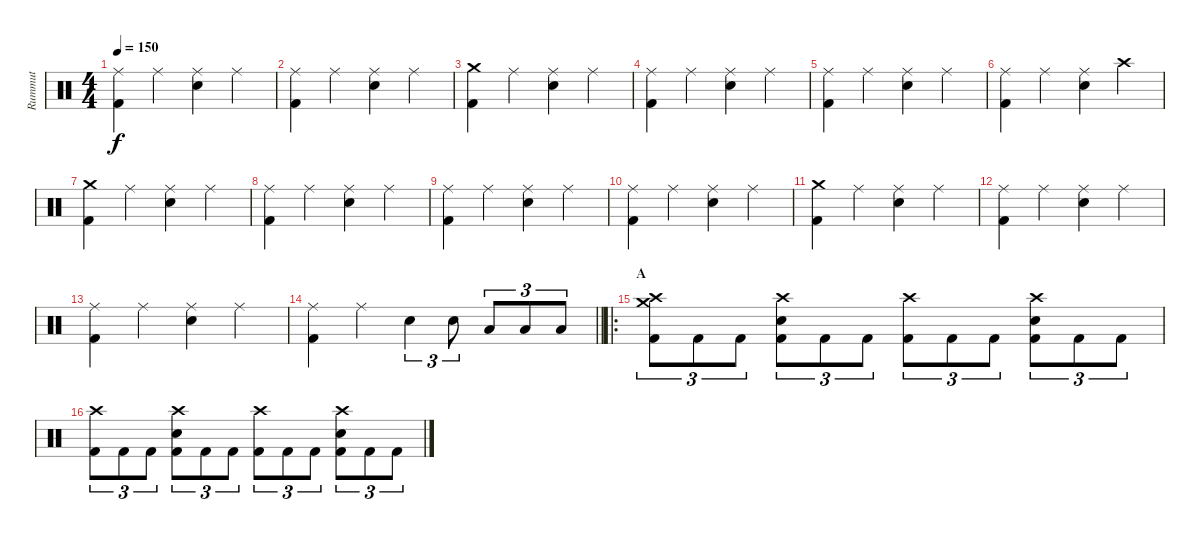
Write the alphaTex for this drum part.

\track ("Rummut" "Rummut") {mute instrument percussion}
\staff {score}
\articulation defaults
\ts (4 4)
\tempo 150
\clef neutral
\ks c
("Ride (middle)" "Kick (hit) 2").4{dy f} "Ride (middle)".4 ("Ride (middle)" "Electric Snare (hit)").4 "Ride (middle)".4 |
("Ride (middle)" "Kick (hit) 2").4 "Ride (middle)".4 ("Ride (middle)" "Electric Snare (hit)").4 "Ride (middle)".4 |
("Crash medium (hit)" "Kick (hit) 2").4 "Ride (middle)".4 ("Ride (middle)" "Electric Snare (hit)").4 "Ride (middle)".4 |
("Ride (middle)" "Kick (hit) 2").4 "Ride (middle)".4 ("Ride (middle)" "Electric Snare (hit)").4 "Ride (middle)".4 |
("Ride (middle)" "Kick (hit) 2").4 "Ride (middle)".4 ("Ride (middle)" "Electric Snare (hit)").4 "Ride (middle)".4 |
("Ride (middle)" "Kick (hit) 2").4 "Ride (middle)".4 ("Ride (middle)" "Electric Snare (hit)").4 "Crash high (hit)".4 |
("Crash medium (hit)" "Kick (hit) 2").4 "Ride (middle)".4 ("Ride (middle)" "Electric Snare (hit)").4 "Ride (middle)".4 |
("Ride (middle)" "Kick (hit) 2").4 "Ride (middle)".4 ("Ride (middle)" "Electric Snare (hit)").4 "Ride (middle)".4 |
("Ride (middle)" "Kick (hit) 2").4 "Ride (middle)".4 ("Ride (middle)" "Electric Snare (hit)").4 "Ride (middle)".4 |
("Ride (middle)" "Kick (hit) 2").4 "Ride (middle)".4 ("Ride (middle)" "Electric Snare (hit)").4 "Ride (middle)".4 |
("Crash medium (hit)" "Kick (hit) 2").4 "Ride (middle)".4 ("Ride (middle)" "Electric Snare (hit)").4 "Ride (middle)".4 |
("Ride (middle)" "Kick (hit) 2").4 "Ride (middle)".4 ("Ride (middle)" "Electric Snare (hit)").4 "Ride (middle)".4 |
("Ride (middle)" "Kick (hit) 2").4 "Ride (middle)".4 ("Ride (middle)" "Electric Snare (hit)").4 "Ride (middle)".4 |
\barLineRight lightlight
("Ride (middle)" "Kick (hit) 2").4 "Ride (middle)".4 "Electric Snare (hit)".4{tu (3 2)} "Electric Snare (hit)".8{tu (3 2)} "Low Tom (hit)".8{tu (3 2)} "Low Tom (hit)".8{tu (3 2)} "Low Floor Tom (hit)".8{tu (3 2)} |
\ro
\section ("" "A")
("Crash medium (hit)" "Crash high (hit)" "Kick (hit) 2").8{tu (3 2)} "Kick (hit) 2".8{tu (3 2)} "Kick (hit) 2".8{tu (3 2)} ("Crash high (hit)" "Electric Snare (hit)" "Kick (hit) 2").8{tu (3 2)} "Kick (hit) 2".8{tu (3 2)} "Kick (hit) 2".8{tu (3 2)} ("Crash high (hit)" "Kick (hit) 2").8{tu (3 2)} "Kick (hit) 2".8{tu (3 2)} "Kick (hit) 2".8{tu (3 2)} ("Crash high (hit)" "Electric Snare (hit)" "Kick (hit) 2").8{tu (3 2)} "Kick (hit) 2".8{tu (3 2)} "Kick (hit) 2".8{tu (3 2)} |
("Crash high (hit)" "Kick (hit) 2").8{tu (3 2)} "Kick (hit) 2".8{tu (3 2)} "Kick (hit) 2".8{tu (3 2)} ("Crash high (hit)" "Electric Snare (hit)" "Kick (hit) 2").8{tu (3 2)} "Kick (hit) 2".8{tu (3 2)} "Kick (hit) 2".8{tu (3 2)} ("Crash high (hit)" "Kick (hit) 2").8{tu (3 2)} "Kick (hit) 2".8{tu (3 2)} "Kick (hit) 2".8{tu (3 2)} ("Crash high (hit)" "Electric Snare (hit)" "Kick (hit) 2").8{tu (3 2)} "Kick (hit) 2".8{tu (3 2)} "Kick (hit) 2".8{tu (3 2)}
